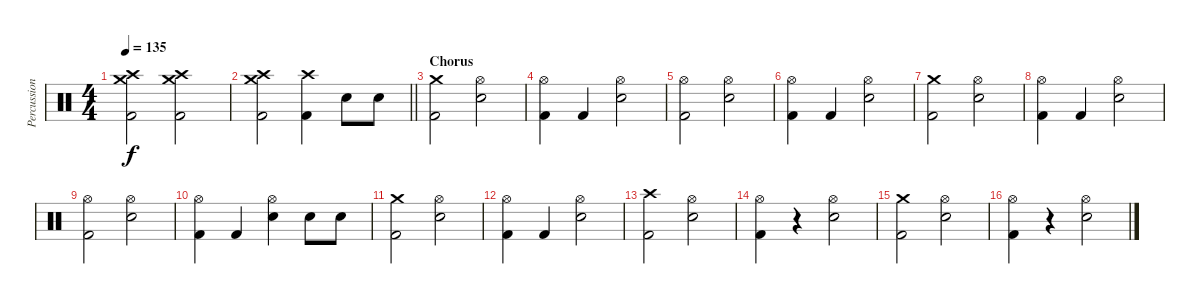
\track ("Percussion" "Percussion") {instrument percussion}
\staff {score}
\articulation defaults
\ts (4 4)
\tempo 135
\clef neutral
\ks c
("Crash high (hit)" "Crash medium (hit)" "Kick (hit) 2").2{dy f} ("Crash high (hit)" "Crash medium (hit)" "Kick (hit) 2").2 |
\barLineRight lightlight
("Crash medium (hit)" "Crash high (hit)" "Kick (hit) 2").2 ("Crash high (hit)" "Kick (hit) 2").4 "Electric Snare (hit)".8 "Electric Snare (hit)".8 |
\section ("" "Chorus")
("Crash medium (hit)" "Kick (hit) 2").2 ("Hi-Hat (open)" "Electric Snare (hit)").2 |
("Hi-Hat (open)" "Kick (hit) 2").4 "Kick (hit) 2".4 ("Hi-Hat (open)" "Electric Snare (hit)").2 |
("Hi-Hat (open)" "Kick (hit) 2").2 ("Hi-Hat (open)" "Electric Snare (hit)").2 |
("Hi-Hat (open)" "Kick (hit) 2").4 "Kick (hit) 2".4 ("Hi-Hat (open)" "Electric Snare (hit)").2 |
("Crash medium (hit)" "Kick (hit) 2").2 ("Hi-Hat (open)" "Electric Snare (hit)").2 |
("Hi-Hat (open)" "Kick (hit) 2").4 "Kick (hit) 2".4 ("Hi-Hat (open)" "Electric Snare (hit)").2 |
("Hi-Hat (open)" "Kick (hit) 2").2 ("Hi-Hat (open)" "Electric Snare (hit)").2 |
("Hi-Hat (open)" "Kick (hit) 2").4 "Kick (hit) 2".4 ("Hi-Hat (open)" "Electric Snare (hit)").4 "Electric Snare (hit)".8 "Electric Snare (hit)".8 |
("Crash medium (hit)" "Kick (hit) 2").2 ("Hi-Hat (open)" "Electric Snare (hit)").2 |
("Hi-Hat (open)" "Kick (hit) 2").4 "Kick (hit) 2".4 ("Hi-Hat (open)" "Electric Snare (hit)").2 |
("Crash high (hit)" "Kick (hit) 2").2 ("Hi-Hat (open)" "Electric Snare (hit)").2 |
("Hi-Hat (open)" "Kick (hit) 2").4 r.4 ("Hi-Hat (open)" "Electric Snare (hit)").2 |
("Crash medium (hit)" "Kick (hit) 2").2 ("Hi-Hat (open)" "Electric Snare (hit)").2 |
("Hi-Hat (open)" "Kick (hit) 2").4 r.4 ("Hi-Hat (open)" "Electric Snare (hit)").2
